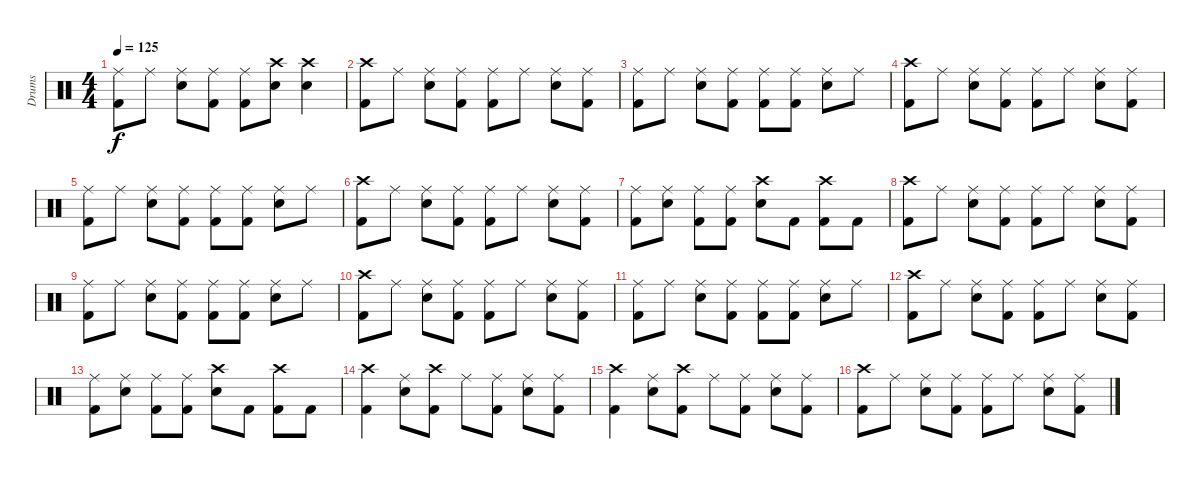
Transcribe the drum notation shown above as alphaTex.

\track ("Drums" "Drums") {instrument percussion}
\staff {score}
\articulation defaults
\ts (4 4)
\tempo 125
\clef neutral
\ks c
("Ride (middle)" "Kick (hit) 2").8{dy f} "Ride (middle)".8 ("Ride (middle)" "Snare (hit) 2").8 ("Ride (middle)" "Kick (hit) 2").8 ("Ride (middle)" "Kick (hit) 2").8 ("Snare (hit) 2" "Crash high (hit)").8 ("Snare (hit) 2" "Crash high (hit)").4 |
("Crash high (hit)" "Kick (hit) 2").8 "Ride (middle)".8 ("Ride (middle)" "Snare (hit) 2").8 ("Ride (middle)" "Kick (hit) 2").8 ("Ride (middle)" "Kick (hit) 2").8 "Ride (middle)".8 ("Ride (middle)" "Snare (hit) 2").8 ("Ride (middle)" "Kick (hit) 2").8 |
("Ride (middle)" "Kick (hit) 2").8 "Ride (middle)".8 ("Ride (middle)" "Snare (hit) 2").8 ("Ride (middle)" "Kick (hit) 2").8 ("Ride (middle)" "Kick (hit) 2").8 ("Ride (middle)" "Kick (hit) 2").8 ("Ride (middle)" "Snare (hit) 2").8 "Ride (middle)".8 |
("Crash high (hit)" "Kick (hit) 2").8 "Ride (middle)".8 ("Ride (middle)" "Snare (hit) 2").8 ("Ride (middle)" "Kick (hit) 2").8 ("Ride (middle)" "Kick (hit) 2").8 "Ride (middle)".8 ("Ride (middle)" "Snare (hit) 2").8 ("Ride (middle)" "Kick (hit) 2").8 |
("Ride (middle)" "Kick (hit) 2").8 "Ride (middle)".8 ("Ride (middle)" "Snare (hit) 2").8 ("Ride (middle)" "Kick (hit) 2").8 ("Ride (middle)" "Kick (hit) 2").8 ("Ride (middle)" "Kick (hit) 2").8 ("Ride (middle)" "Snare (hit) 2").8 "Ride (middle)".8 |
("Crash high (hit)" "Kick (hit) 2").8 "Ride (middle)".8 ("Ride (middle)" "Snare (hit) 2").8 ("Ride (middle)" "Kick (hit) 2").8 ("Ride (middle)" "Kick (hit) 2").8 "Ride (middle)".8 ("Ride (middle)" "Snare (hit) 2").8 ("Ride (middle)" "Kick (hit) 2").8 |
("Ride (middle)" "Kick (hit) 2").8 ("Ride (middle)" "Snare (hit) 2").8 ("Ride (middle)" "Kick (hit) 2").8 ("Ride (middle)" "Kick (hit) 2").8 ("Crash high (hit)" "Snare (hit) 2").8 "Kick (hit) 2".8 ("Crash high (hit)" "Kick (hit) 2").8 "Kick (hit) 2".8 |
("Crash high (hit)" "Kick (hit) 2").8 "Ride (middle)".8 ("Ride (middle)" "Snare (hit) 2").8 ("Ride (middle)" "Kick (hit) 2").8 ("Ride (middle)" "Kick (hit) 2").8 "Ride (middle)".8 ("Ride (middle)" "Snare (hit) 2").8 ("Ride (middle)" "Kick (hit) 2").8 |
("Ride (middle)" "Kick (hit) 2").8 "Ride (middle)".8 ("Ride (middle)" "Snare (hit) 2").8 ("Ride (middle)" "Kick (hit) 2").8 ("Ride (middle)" "Kick (hit) 2").8 ("Ride (middle)" "Kick (hit) 2").8 ("Ride (middle)" "Snare (hit) 2").8 "Ride (middle)".8 |
("Crash high (hit)" "Kick (hit) 2").8 "Ride (middle)".8 ("Ride (middle)" "Snare (hit) 2").8 ("Ride (middle)" "Kick (hit) 2").8 ("Ride (middle)" "Kick (hit) 2").8 "Ride (middle)".8 ("Ride (middle)" "Snare (hit) 2").8 ("Ride (middle)" "Kick (hit) 2").8 |
("Ride (middle)" "Kick (hit) 2").8 "Ride (middle)".8 ("Ride (middle)" "Snare (hit) 2").8 ("Ride (middle)" "Kick (hit) 2").8 ("Ride (middle)" "Kick (hit) 2").8 ("Ride (middle)" "Kick (hit) 2").8 ("Ride (middle)" "Snare (hit) 2").8 "Ride (middle)".8 |
("Crash high (hit)" "Kick (hit) 2").8 "Ride (middle)".8 ("Ride (middle)" "Snare (hit) 2").8 ("Ride (middle)" "Kick (hit) 2").8 ("Ride (middle)" "Kick (hit) 2").8 "Ride (middle)".8 ("Ride (middle)" "Snare (hit) 2").8 ("Ride (middle)" "Kick (hit) 2").8 |
("Ride (middle)" "Kick (hit) 2").8 ("Ride (middle)" "Snare (hit) 2").8 ("Ride (middle)" "Kick (hit) 2").8 ("Ride (middle)" "Kick (hit) 2").8 ("Crash high (hit)" "Snare (hit) 2").8 "Kick (hit) 2".8 ("Crash high (hit)" "Kick (hit) 2").8 "Kick (hit) 2".8 |
("Crash high (hit)" "Kick (hit) 2").4 ("Ride (middle)" "Snare (hit) 2").8 ("Crash high (hit)" "Kick (hit) 2").8 "Ride (middle)".8 ("Ride (middle)" "Kick (hit) 2").8 ("Ride (middle)" "Snare (hit) 2").8 ("Ride (middle)" "Kick (hit) 2").8 |
("Crash high (hit)" "Kick (hit) 2").4 ("Ride (middle)" "Snare (hit) 2").8 ("Crash high (hit)" "Kick (hit) 2").8 "Ride (middle)".8 ("Ride (middle)" "Kick (hit) 2").8 ("Ride (middle)" "Snare (hit) 2").8 ("Ride (middle)" "Kick (hit) 2").8 |
("Crash high (hit)" "Kick (hit) 2").8 "Ride (middle)".8 ("Ride (middle)" "Snare (hit) 2").8 ("Ride (middle)" "Kick (hit) 2").8 ("Ride (middle)" "Kick (hit) 2").8 "Ride (middle)".8 ("Ride (middle)" "Snare (hit) 2").8 ("Ride (middle)" "Kick (hit) 2").8
